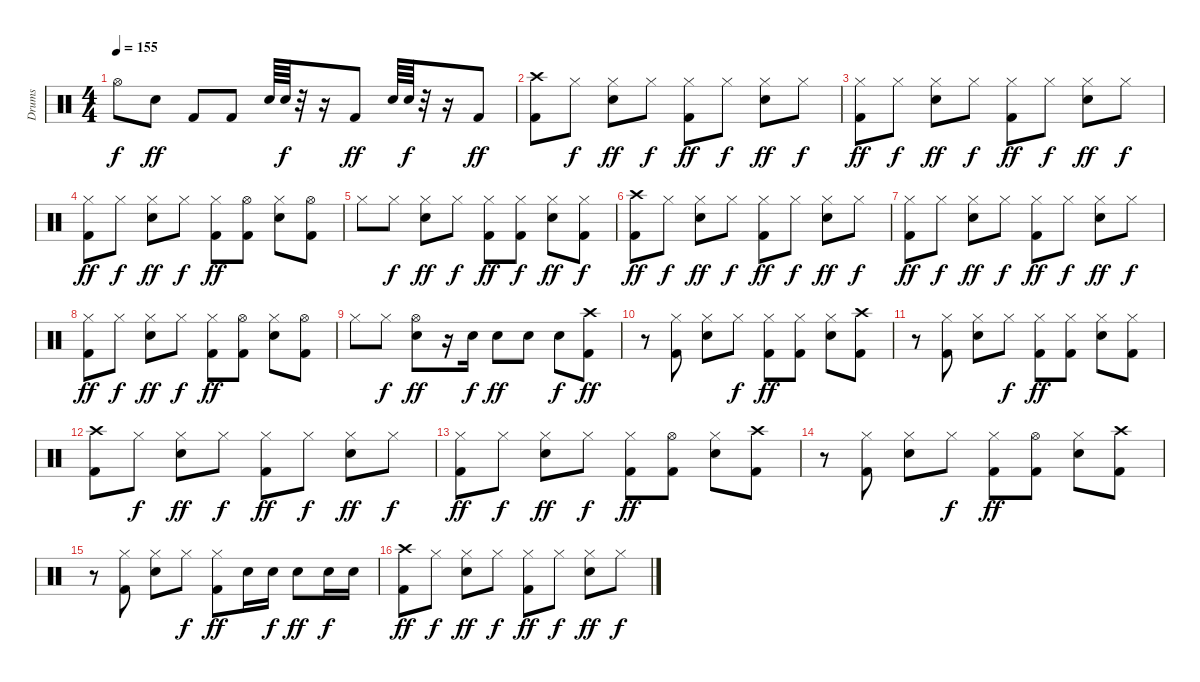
\track ("Drums" "Drums") {instrument percussion}
\staff {score}
\articulation defaults
\ts (4 4)
\tempo 155
\clef neutral
\ks c "Hi-Hat (open)".8{dy f} "Snare (hit) 2".8{dy ff} "Kick (hit) 2".8 "Kick (hit) 2".8 "Snare (hit) 2".64 "Snare (hit) 2".64{dy f}
r.32 r.16 "Kick (hit) 2".8{dy ff} "Snare (hit) 2".64 "Snare (hit) 2".64{dy f} r.32 r.16 "Kick (hit) 2".8{dy ff} |
("Crash high (hit)" "Kick (hit) 2").8 "Hi-Hat (closed)".8{dy f} ("Hi-Hat (closed)" "Snare (hit) 2").8{dy ff} "Hi-Hat (closed)".8{dy f} ("Hi-Hat (closed)" "Kick (hit) 2").8{dy ff} "Hi-Hat (closed)".8{dy f} ("Hi-Hat (closed)" "Snare (hit) 2").8{dy ff} "Hi-Hat (closed)".8{dy f} |
("Hi-Hat (closed)" "Kick (hit) 2").8{dy ff} "Hi-Hat (closed)".8{dy f} ("Hi-Hat (closed)" "Snare (hit) 2").8{dy ff} "Hi-Hat (closed)".8{dy f} ("Hi-Hat (closed)" "Kick (hit) 2").8{dy ff} "Hi-Hat (closed)".8{dy f} ("Hi-Hat (closed)" "Snare (hit) 2").8{dy ff} "Hi-Hat (closed)".8{dy f} |
("Hi-Hat (closed)" "Kick (hit) 2").8{dy ff} "Hi-Hat (closed)".8{dy f} ("Hi-Hat (closed)" "Snare (hit) 2").8{dy ff} "Hi-Hat (closed)".8{dy f} ("Hi-Hat (closed)" "Kick (hit) 2").8{dy ff} ("Hi-Hat (open)" "Kick (hit) 2").8 ("Hi-Hat (closed)" "Snare (hit) 2").8 ("Hi-Hat (open)" "Kick (hit) 2").8 |
"Hi-Hat (closed)".8 "Hi-Hat (closed)".8{dy f} ("Hi-Hat (closed)" "Snare (hit) 2").8{dy ff} "Hi-Hat (closed)".8{dy f} ("Hi-Hat (closed)" "Kick (hit) 2").8{dy ff} ("Hi-Hat (closed)" "Kick (hit) 2").8{dy f} ("Hi-Hat (closed)" "Snare (hit) 2").8{dy ff} ("Hi-Hat (closed)" "Kick (hit) 2").8{dy f} |
("Crash high (hit)" "Kick (hit) 2").8{dy ff} "Hi-Hat (closed)".8{dy f} ("Hi-Hat (closed)" "Snare (hit) 2").8{dy ff} "Hi-Hat (closed)".8{dy f} ("Hi-Hat (closed)" "Kick (hit) 2").8{dy ff} "Hi-Hat (closed)".8{dy f} ("Hi-Hat (closed)" "Snare (hit) 2").8{dy ff} "Hi-Hat (closed)".8{dy f} |
("Hi-Hat (closed)" "Kick (hit) 2").8{dy ff} "Hi-Hat (closed)".8{dy f} ("Hi-Hat (closed)" "Snare (hit) 2").8{dy ff} "Hi-Hat (closed)".8{dy f} ("Hi-Hat (closed)" "Kick (hit) 2").8{dy ff} "Hi-Hat (closed)".8{dy f} ("Hi-Hat (closed)" "Snare (hit) 2").8{dy ff} "Hi-Hat (closed)".8{dy f} |
("Hi-Hat (closed)" "Kick (hit) 2").8{dy ff} "Hi-Hat (closed)".8{dy f} ("Hi-Hat (closed)" "Snare (hit) 2").8{dy ff} "Hi-Hat (closed)".8{dy f} ("Hi-Hat (closed)" "Kick (hit) 2").8{dy ff} ("Hi-Hat (open)" "Kick (hit) 2").8 ("Hi-Hat (closed)" "Snare (hit) 2").8 ("Hi-Hat (open)" "Kick (hit) 2").8 |
"Hi-Hat (closed)".8 "Hi-Hat (closed)".8{dy f} ("Hi-Hat (open)" "Snare (hit) 2").8{dy ff} r.16 "Snare (hit) 2".16{dy f} "Snare (hit) 2".8{dy ff} "Snare (hit) 2".8 "Snare (hit) 2".8{dy f} ("Crash high (hit)" "Kick (hit) 2").8{dy ff} |
r.8 ("Hi-Hat (closed)" "Kick (hit) 2").8 ("Hi-Hat (closed)" "Snare (hit) 2").8 "Hi-Hat (closed)".8{dy f} ("Hi-Hat (closed)" "Kick (hit) 2").8{dy ff} ("Hi-Hat (closed)" "Kick (hit) 2").8 ("Hi-Hat (closed)" "Snare (hit) 2").8 ("Crash high (hit)" "Kick (hit) 2").8 |
r.8 ("Hi-Hat (closed)" "Kick (hit) 2").8 ("Hi-Hat (closed)" "Snare (hit) 2").8 "Hi-Hat (closed)".8{dy f} ("Hi-Hat (closed)" "Kick (hit) 2").8{dy ff} ("Hi-Hat (closed)" "Kick (hit) 2").8 ("Hi-Hat (closed)" "Snare (hit) 2").8 ("Hi-Hat (closed)" "Kick (hit) 2").8 |
("Crash high (hit)" "Kick (hit) 2").8 "Hi-Hat (closed)".8{dy f} ("Hi-Hat (closed)" "Snare (hit) 2").8{dy ff} "Hi-Hat (closed)".8{dy f} ("Hi-Hat (closed)" "Kick (hit) 2").8{dy ff} "Hi-Hat (closed)".8{dy f} ("Hi-Hat (closed)" "Snare (hit) 2").8{dy ff} "Hi-Hat (closed)".8{dy f} |
("Hi-Hat (closed)" "Kick (hit) 2").8{dy ff} "Hi-Hat (closed)".8{dy f} ("Hi-Hat (closed)" "Snare (hit) 2").8{dy ff} "Hi-Hat (closed)".8{dy f} ("Hi-Hat (closed)" "Kick (hit) 2").8{dy ff} ("Hi-Hat (open)" "Kick (hit) 2").8 ("Hi-Hat (closed)" "Snare (hit) 2").8 ("Crash high (hit)" "Kick (hit) 2").8 |
r.8 ("Hi-Hat (closed)" "Kick (hit) 2").8 ("Hi-Hat (closed)" "Snare (hit) 2").8 "Hi-Hat (closed)".8{dy f} ("Hi-Hat (closed)" "Kick (hit) 2").8{dy ff} ("Hi-Hat (open)" "Kick (hit) 2").8 ("Hi-Hat (closed)" "Snare (hit) 2").8 ("Crash high (hit)" "Kick (hit) 2").8 |
r.8 ("Hi-Hat (closed)" "Kick (hit) 2").8 ("Hi-Hat (closed)" "Snare (hit) 2").8 "Hi-Hat (closed)".8{dy f} ("Hi-Hat (closed)" "Kick (hit) 2").8{dy ff} "Snare (hit) 2".16 "Snare (hit) 2".16{dy f} "Snare (hit) 2".8{dy ff} "Snare (hit) 2".16{dy f} "Snare (hit) 2".16 |
("Crash high (hit)" "Kick (hit) 2").8{dy ff} "Hi-Hat (closed)".8{dy f} ("Hi-Hat (closed)" "Snare (hit) 2").8{dy ff} "Hi-Hat (closed)".8{dy f} ("Hi-Hat (closed)" "Kick (hit) 2").8{dy ff} "Hi-Hat (closed)".8{dy f} ("Hi-Hat (closed)" "Snare (hit) 2").8{dy ff} "Hi-Hat (closed)".8{dy f}
